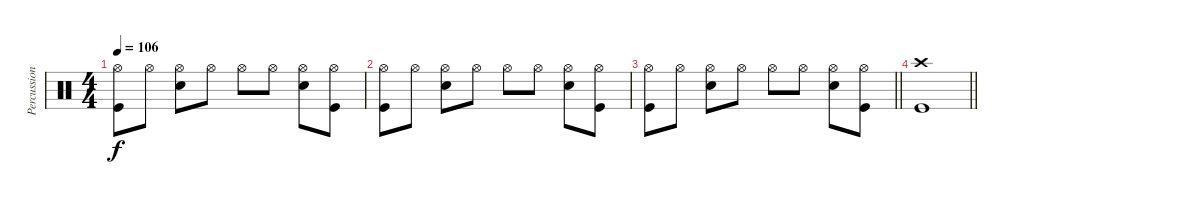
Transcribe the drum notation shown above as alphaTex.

\track ("Percussion" "Percussion") {instrument percussion}
\staff {score}
\articulation defaults
\ts (4 4)
\tempo 106
\clef neutral
\ks c
("Hi-Hat (open)" "Kick (hit)").8{dy f} "Hi-Hat (open)".8 ("Hi-Hat (open)" "Snare (hit) 2").8 "Hi-Hat (open)".8 "Hi-Hat (open)".8 "Hi-Hat (open)".8 ("Hi-Hat (open)" "Snare (hit) 2").8 ("Hi-Hat (open)" "Kick (hit)").8 |
("Hi-Hat (open)" "Kick (hit)").8 "Hi-Hat (open)".8 ("Hi-Hat (open)" "Snare (hit) 2").8 "Hi-Hat (open)".8 "Hi-Hat (open)".8 "Hi-Hat (open)".8 ("Hi-Hat (open)" "Snare (hit) 2").8 ("Hi-Hat (open)" "Kick (hit)").8 |
\barLineRight lightlight
("Hi-Hat (open)" "Kick (hit)").8 "Hi-Hat (open)".8 ("Hi-Hat (open)" "Snare (hit) 2").8 "Hi-Hat (open)".8 "Hi-Hat (open)".8 "Hi-Hat (open)".8 ("Hi-Hat (open)" "Snare (hit) 2").8 ("Hi-Hat (open)" "Kick (hit)").8 |
\barLineRight lightlight
("Crash high (hit)" "Kick (hit)").1
